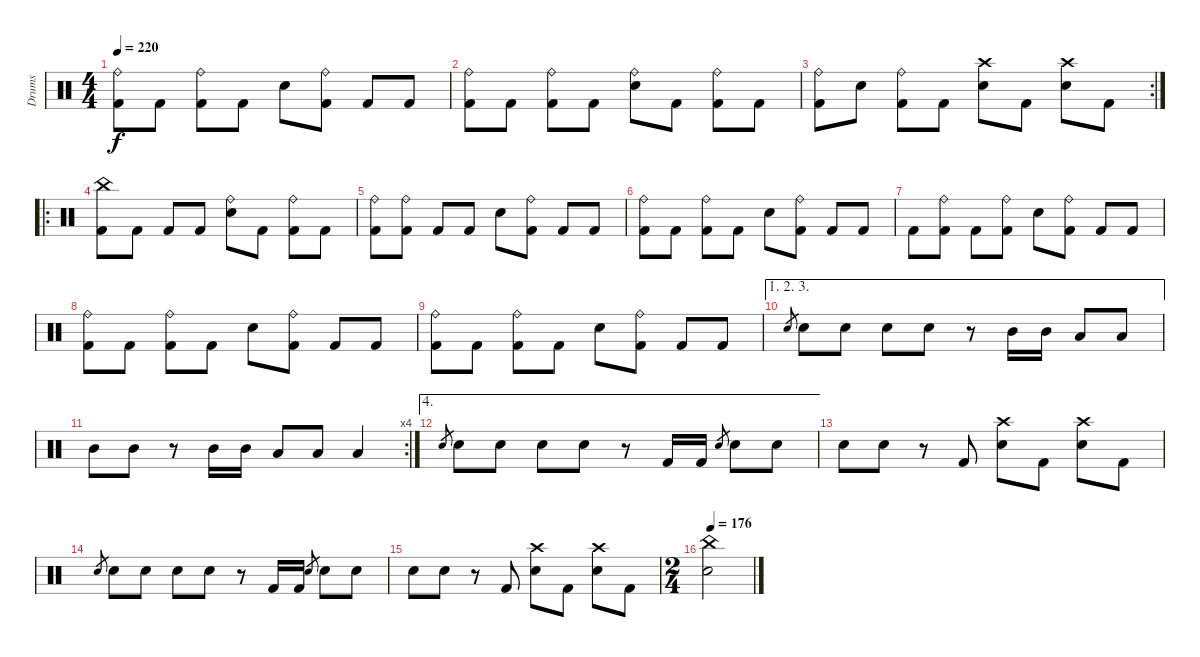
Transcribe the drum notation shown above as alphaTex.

\track ("Drums" "Drums") {instrument percussion}
\staff {score}
\articulation defaults
\ts (4 4)
\tempo 220
\clef neutral
\ks c
("Ride (bell)" "Kick (hit) 2").8{dy f} "Kick (hit) 2".8 ("Ride (bell)" "Kick (hit) 2").8 "Kick (hit) 2".8 "Electric Snare (hit)".8 ("Ride (bell)" "Kick (hit) 2").8 "Kick (hit) 2".8 "Kick (hit) 2".8 |
("Ride (bell)" "Kick (hit) 2").8 "Kick (hit) 2".8 ("Ride (bell)" "Kick (hit) 2").8 "Kick (hit) 2".8 ("Ride (bell)" "Electric Snare (hit)").8 "Kick (hit) 2".8 ("Ride (bell)" "Kick (hit) 2").8 "Kick (hit) 2".8 |
\rc 2
("Ride (bell)" "Kick (hit) 2").8 "Electric Snare (hit)".8 ("Ride (bell)" "Kick (hit) 2").8 "Kick (hit) 2".8 ("Crash high (hit)" "Electric Snare (hit)").8 "Kick (hit) 2".8 ("Crash high (hit)" "Electric Snare (hit)").8 "Kick (hit) 2".8 |
\ro
("China (hit)" "Kick (hit) 2").8 "Kick (hit) 2".8 "Kick (hit) 2".8 "Kick (hit) 2".8 ("Ride (bell)" "Electric Snare (hit)").8 "Kick (hit) 2".8 ("Ride (bell)" "Kick (hit) 2").8 "Kick (hit) 2".8 |
("Ride (bell)" "Kick (hit) 2").8 ("Ride (bell)" "Kick (hit) 2").8 "Kick (hit) 2".8 "Kick (hit) 2".8 "Electric Snare (hit)".8 ("Ride (bell)" "Kick (hit) 2").8 "Kick (hit) 2".8 "Kick (hit) 2".8 |
("Ride (bell)" "Kick (hit) 2").8 "Kick (hit) 2".8 ("Ride (bell)" "Kick (hit) 2").8 "Kick (hit) 2".8 "Electric Snare (hit)".8 ("Ride (bell)" "Kick (hit) 2").8 "Kick (hit) 2".8 "Kick (hit) 2".8 |
"Kick (hit) 2".8 ("Ride (bell)" "Kick (hit) 2").8 "Kick (hit) 2".8 ("Ride (bell)" "Kick (hit) 2").8 "Electric Snare (hit)".8 ("Ride (bell)" "Kick (hit) 2").8 "Kick (hit) 2".8 "Kick (hit) 2".8 |
("Ride (bell)" "Kick (hit) 2").8 "Kick (hit) 2".8 ("Ride (bell)" "Kick (hit) 2").8 "Kick (hit) 2".8 "Electric Snare (hit)".8 ("Ride (bell)" "Kick (hit) 2").8 "Kick (hit) 2".8 "Kick (hit) 2".8 |
("Ride (bell)" "Kick (hit) 2").8 "Kick (hit) 2".8 ("Ride (bell)" "Kick (hit) 2").8 "Kick (hit) 2".8 "Electric Snare (hit)".8 ("Ride (bell)" "Kick (hit) 2").8 "Kick (hit) 2".8 "Kick (hit) 2".8 |
\ae (1 2 3)
"Electric Snare (hit)".8{gr} "Electric Snare (hit)".8 "Electric Snare (hit)".8 "Electric Snare (hit)".8 "Electric Snare (hit)".8 r.8 "Mid Tom (hit)".16 "Mid Tom (hit)".16 "Low Tom (hit)".8 "Low Tom (hit)".8 |
\rc 4 "Mid Tom (hit)".8 "Mid Tom (hit)".8
r.8 "Mid Tom (hit)".16 "Mid Tom (hit)".16 "Low Tom (hit)".8 "Low Tom (hit)".8 "Low Tom (hit)".4 |
\ae 4 "Electric Snare (hit)".8{gr} "Electric Snare (hit)".8 "Electric Snare (hit)".8 "Electric Snare (hit)".8 "Electric Snare (hit)".8
r.8 "Kick (hit) 2".16 "Kick (hit) 2".16 "Electric Snare (hit)".8{gr} "Electric Snare (hit)".8 "Electric Snare (hit)".8 |
"Electric Snare (hit)".8 "Electric Snare (hit)".8 r.8 "Kick (hit) 2".8 ("Crash high (hit)" "Electric Snare (hit)").8 "Kick (hit) 2".8 ("Crash high (hit)" "Electric Snare (hit)").8 "Kick (hit) 2".8 |
"Electric Snare (hit)".8{gr} "Electric Snare (hit)".8 "Electric Snare (hit)".8 "Electric Snare (hit)".8 "Electric Snare (hit)".8 r.8 "Kick (hit) 2".16 "Kick (hit) 2".16 "Electric Snare (hit)".8{gr} "Electric Snare (hit)".8 "Electric Snare (hit)".8 |
"Electric Snare (hit)".8 "Electric Snare (hit)".8 r.8 "Kick (hit) 2".8 ("Crash high (hit)" "Electric Snare (hit)").8 "Kick (hit) 2".8 ("Crash high (hit)" "Electric Snare (hit)").8 "Kick (hit) 2".8 |
\ts (2 4)
\tempo 176
("China (hit)" "Electric Snare (hit)").2
